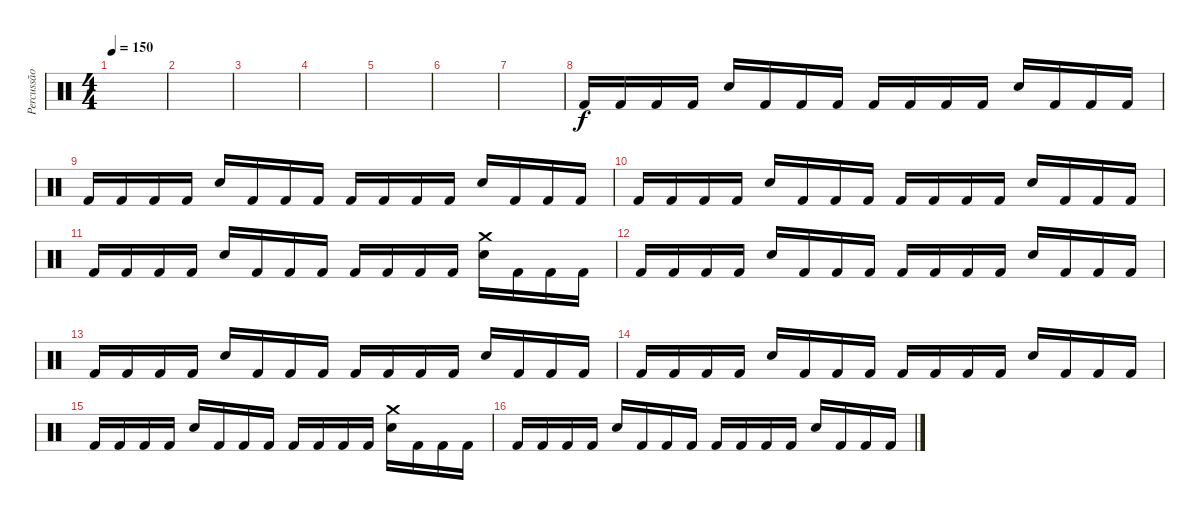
\track ("Percussão" "Percussão") {instrument percussion}
\staff {score}
\articulation defaults
\ts (4 4)
\tempo 150
\clef neutral
\ks c
|
|
|
|
|
|
|
"Kick (hit) 2".16 "Kick (hit) 2".16 "Kick (hit) 2".16 "Kick (hit) 2".16 "Electric Snare (hit)".16 "Kick (hit) 2".16 "Kick (hit) 2".16 "Kick (hit) 2".16 "Kick (hit) 2".16 "Kick (hit) 2".16 "Kick (hit) 2".16 "Kick (hit) 2".16 "Electric Snare (hit)".16 "Kick (hit) 2".16 "Kick (hit) 2".16 "Kick (hit) 2".16 |
"Kick (hit) 2".16 "Kick (hit) 2".16 "Kick (hit) 2".16 "Kick (hit) 2".16 "Electric Snare (hit)".16 "Kick (hit) 2".16 "Kick (hit) 2".16 "Kick (hit) 2".16 "Kick (hit) 2".16 "Kick (hit) 2".16 "Kick (hit) 2".16 "Kick (hit) 2".16 "Electric Snare (hit)".16 "Kick (hit) 2".16 "Kick (hit) 2".16 "Kick (hit) 2".16 |
"Kick (hit) 2".16 "Kick (hit) 2".16 "Kick (hit) 2".16 "Kick (hit) 2".16 "Electric Snare (hit)".16 "Kick (hit) 2".16 "Kick (hit) 2".16 "Kick (hit) 2".16 "Kick (hit) 2".16 "Kick (hit) 2".16 "Kick (hit) 2".16 "Kick (hit) 2".16 "Electric Snare (hit)".16 "Kick (hit) 2".16 "Kick (hit) 2".16 "Kick (hit) 2".16 |
"Kick (hit) 2".16 "Kick (hit) 2".16 "Kick (hit) 2".16 "Kick (hit) 2".16 "Electric Snare (hit)".16 "Kick (hit) 2".16 "Kick (hit) 2".16 "Kick (hit) 2".16 "Kick (hit) 2".16 "Kick (hit) 2".16 "Kick (hit) 2".16 "Kick (hit) 2".16 ("Crash medium (hit)" "Electric Snare (hit)").16 "Kick (hit) 2".16 "Kick (hit) 2".16 "Kick (hit) 2".16 |
"Kick (hit) 2".16 "Kick (hit) 2".16 "Kick (hit) 2".16 "Kick (hit) 2".16 "Electric Snare (hit)".16 "Kick (hit) 2".16 "Kick (hit) 2".16 "Kick (hit) 2".16 "Kick (hit) 2".16 "Kick (hit) 2".16 "Kick (hit) 2".16 "Kick (hit) 2".16 "Electric Snare (hit)".16 "Kick (hit) 2".16 "Kick (hit) 2".16 "Kick (hit) 2".16 |
"Kick (hit) 2".16 "Kick (hit) 2".16 "Kick (hit) 2".16 "Kick (hit) 2".16 "Electric Snare (hit)".16 "Kick (hit) 2".16 "Kick (hit) 2".16 "Kick (hit) 2".16 "Kick (hit) 2".16 "Kick (hit) 2".16 "Kick (hit) 2".16 "Kick (hit) 2".16 "Electric Snare (hit)".16 "Kick (hit) 2".16 "Kick (hit) 2".16 "Kick (hit) 2".16 |
"Kick (hit) 2".16 "Kick (hit) 2".16 "Kick (hit) 2".16 "Kick (hit) 2".16 "Electric Snare (hit)".16 "Kick (hit) 2".16 "Kick (hit) 2".16 "Kick (hit) 2".16 "Kick (hit) 2".16 "Kick (hit) 2".16 "Kick (hit) 2".16 "Kick (hit) 2".16 "Electric Snare (hit)".16 "Kick (hit) 2".16 "Kick (hit) 2".16 "Kick (hit) 2".16 |
"Kick (hit) 2".16 "Kick (hit) 2".16 "Kick (hit) 2".16 "Kick (hit) 2".16 "Electric Snare (hit)".16 "Kick (hit) 2".16 "Kick (hit) 2".16 "Kick (hit) 2".16 "Kick (hit) 2".16 "Kick (hit) 2".16 "Kick (hit) 2".16 "Kick (hit) 2".16 ("Crash medium (hit)" "Electric Snare (hit)").16 "Kick (hit) 2".16 "Kick (hit) 2".16 "Kick (hit) 2".16 |
"Kick (hit) 2".16 "Kick (hit) 2".16 "Kick (hit) 2".16 "Kick (hit) 2".16 "Electric Snare (hit)".16 "Kick (hit) 2".16 "Kick (hit) 2".16 "Kick (hit) 2".16 "Kick (hit) 2".16 "Kick (hit) 2".16 "Kick (hit) 2".16 "Kick (hit) 2".16 "Electric Snare (hit)".16 "Kick (hit) 2".16 "Kick (hit) 2".16 "Kick (hit) 2".16
